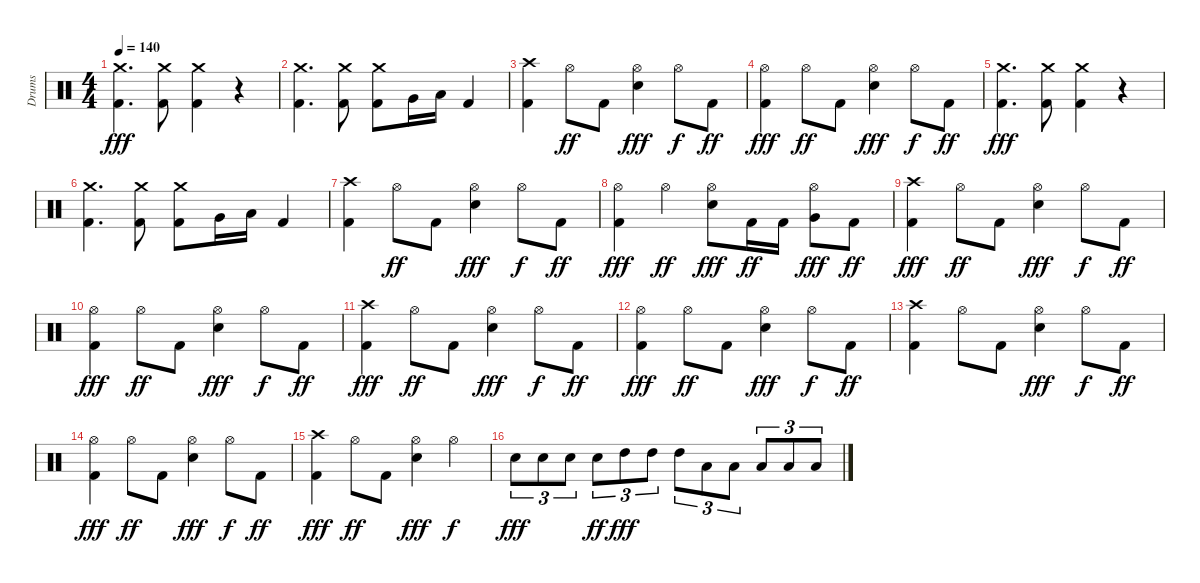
\track ("Drums" "Drums") {instrument percussion}
\staff {score}
\articulation defaults
\ts (4 4)
\tempo 140
\clef neutral
\ks c
("Kick (hit) 2" "Crash medium (hit)").4{d dy fff} ("Kick (hit) 2" "Crash medium (hit)").8 ("Kick (hit) 2" "Crash medium (hit)").4 r.4 |
("Kick (hit) 2" "Crash medium (hit)").4{d} ("Kick (hit) 2" "Crash medium (hit)").8 ("Kick (hit) 2" "Crash medium (hit)").8 "Very Low Tom (hit)".16 "Low Floor Tom (hit)".16 "Kick (hit) 2".4 |
("Kick (hit) 2" "Crash high (hit)").4 "Hi-Hat (open)".8{dy ff} "Kick (hit) 2".8 ("Hi-Hat (open)" "Electric Snare (hit)").4{dy fff} "Hi-Hat (open)".8{dy f} "Kick (hit) 2".8{dy ff} |
("Hi-Hat (open)" "Kick (hit) 2").4{dy fff} "Hi-Hat (open)".8{dy ff} "Kick (hit) 2".8 ("Hi-Hat (open)" "Electric Snare (hit)").4{dy fff} "Hi-Hat (open)".8{dy f} "Kick (hit) 2".8{dy ff} |
("Kick (hit) 2" "Crash medium (hit)").4{d dy fff} ("Kick (hit) 2" "Crash medium (hit)").8 ("Kick (hit) 2" "Crash medium (hit)").4 r.4 |
("Kick (hit) 2" "Crash medium (hit)").4{d} ("Kick (hit) 2" "Crash medium (hit)").8 ("Kick (hit) 2" "Crash medium (hit)").8 "Very Low Tom (hit)".16 "Low Floor Tom (hit)".16 "Kick (hit) 2".4 |
("Kick (hit) 2" "Crash high (hit)").4 "Hi-Hat (open)".8{dy ff} "Kick (hit) 2".8 ("Hi-Hat (open)" "Electric Snare (hit)").4{dy fff} "Hi-Hat (open)".8{dy f} "Kick (hit) 2".8{dy ff} |
("Hi-Hat (open)" "Kick (hit) 2").4{dy fff} "Hi-Hat (open)".4{dy ff} ("Hi-Hat (open)" "Electric Snare (hit)").8{dy fff} "Kick (hit) 2".16{dy ff} "Kick (hit) 2".16 ("Hi-Hat (open)" "Very Low Tom (hit)").8{dy fff} "Kick (hit) 2".8{dy ff} |
("Kick (hit) 2" "Crash high (hit)").4{dy fff} "Hi-Hat (open)".8{dy ff} "Kick (hit) 2".8 ("Hi-Hat (open)" "Electric Snare (hit)").4{dy fff} "Hi-Hat (open)".8{dy f} "Kick (hit) 2".8{dy ff} |
("Hi-Hat (open)" "Kick (hit) 2").4{dy fff} "Hi-Hat (open)".8{dy ff} "Kick (hit) 2".8 ("Hi-Hat (open)" "Electric Snare (hit)").4{dy fff} "Hi-Hat (open)".8{dy f} "Kick (hit) 2".8{dy ff} |
("Kick (hit) 2" "Crash high (hit)").4{dy fff} "Hi-Hat (open)".8{dy ff} "Kick (hit) 2".8 ("Hi-Hat (open)" "Electric Snare (hit)").4{dy fff} "Hi-Hat (open)".8{dy f} "Kick (hit) 2".8{dy ff} |
("Hi-Hat (open)" "Kick (hit) 2").4{dy fff} "Hi-Hat (open)".8{dy ff} "Kick (hit) 2".8 ("Hi-Hat (open)" "Electric Snare (hit)").4{dy fff} "Hi-Hat (open)".8{dy f} "Kick (hit) 2".8{dy ff} |
("Kick (hit) 2" "Crash high (hit)").4 "Hi-Hat (open)".8 "Kick (hit) 2".8 ("Hi-Hat (open)" "Electric Snare (hit)").4{dy fff} "Hi-Hat (open)".8{dy f} "Kick (hit) 2".8{dy ff} |
("Hi-Hat (open)" "Kick (hit) 2").4{dy fff} "Hi-Hat (open)".8{dy ff} "Kick (hit) 2".8 ("Hi-Hat (open)" "Electric Snare (hit)").4{dy fff} "Hi-Hat (open)".8{dy f} "Kick (hit) 2".8{dy ff} |
("Kick (hit) 2" "Crash high (hit)").4{dy fff} "Hi-Hat (open)".8{dy ff} "Kick (hit) 2".8 ("Hi-Hat (open)" "Electric Snare (hit)").4{dy fff} "Hi-Hat (open)".4{dy f} |
"Electric Snare (hit)".8{tu (3 2) dy fff} "Electric Snare (hit)".8{tu (3 2)} "Electric Snare (hit)".8{tu (3 2)} "Electric Snare (hit)".8{tu (3 2) dy ff} "High Tom (hit)".8{tu (3 2) dy fff} "High Tom (hit)".8{tu (3 2)} "High Tom (hit)".8{tu (3 2)} "Low Tom (hit)".8{tu (3 2)} "Low Tom (hit)".8{tu (3 2)} "Low Tom (hit)".8{tu (3 2)} "Low Floor Tom (hit)".8{tu (3 2)} "Low Floor Tom (hit)".8{tu (3 2)}
